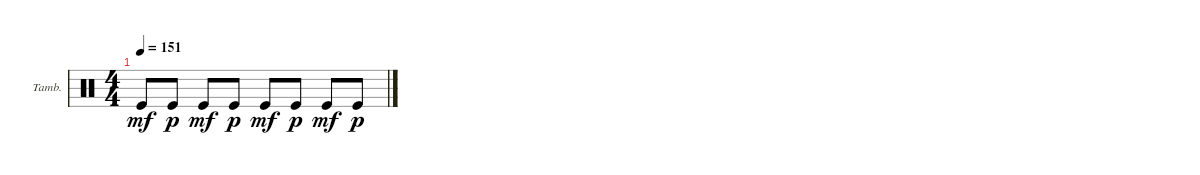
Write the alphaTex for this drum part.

\defaultSystemsLayout 4
\bracketExtendMode groupsimilarinstruments
\firstSystemTrackNameOrientation horizontal
\otherSystemsTrackNameOrientation horizontal
\track ("Helders" "Tamb.") {instrument percussion}
\staff {score}
\articulation defaults
\ts (4 4)
\tempo 151
\clef neutral
\scale
0.333333
\ks c "Kick (hit)".8{dy mf} "Kick (hit)".8{dy p} "Kick (hit)".8{dy mf} "Kick (hit)".8{dy p} "Kick (hit)".8{dy mf} "Kick (hit)".8{dy p} "Kick (hit)".8{dy mf} "Kick (hit)".8{dy p}
|
\scale
0.333333 |
\scale
0.333333 |
\scale
0.333333
